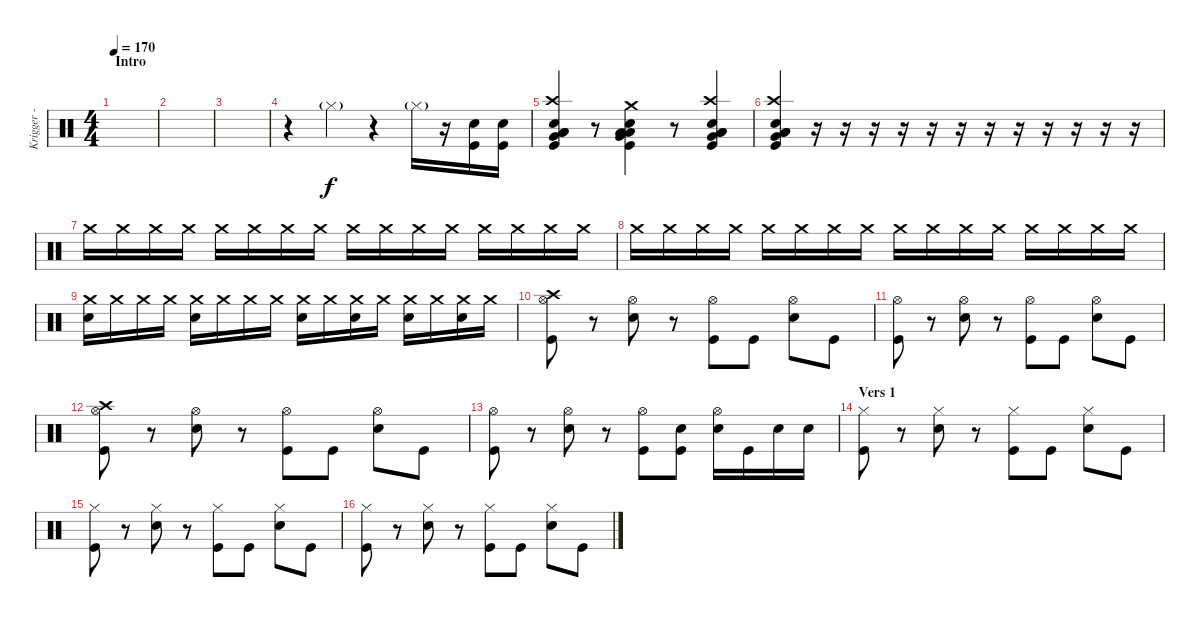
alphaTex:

\track ("Krigger - Drums" "Krigger - ") {instrument percussion}
\staff {score}
\articulation defaults
\ts (4 4)
\section ("" "Intro")
\tempo 170
\clef neutral
\ks c
|
|
|
r.4 "Hi-Hat (closed)"{g}.4 r.4 "Hi-Hat (closed)"{g}.16 r.16 ("Kick (hit)" "Snare (hit) 2").16{dy f} ("Kick (hit)" "Snare (hit) 2").16 |
("Kick (hit)" "Snare (hit) 2" "Crash high (hit)" "Low Floor Tom (hit)" "Low Tom (hit)" "Very Low Tom (hit)").4 r.8 ("Kick (hit)" "Snare (hit) 2" "Crash medium (hit)" "Low Floor Tom (hit)" "Low Tom (hit)" "Very Low Tom (hit)").4 r.8 ("Kick (hit)" "Snare (hit) 2" "Crash high (hit)" "Low Floor Tom (hit)" "Low Tom (hit)" "Very Low Tom (hit)").4 |
("Kick (hit)" "Snare (hit) 2" "Crash high (hit)" "Low Floor Tom (hit)" "Low Tom (hit)" "Very Low Tom (hit)").4 r.16 r.16 r.16 r.16 r.16 r.16 r.16 r.16 r.16 r.16 r.16 r.16{volume 0} |
"Crash medium (hit)".16{volume 13} "Crash medium (hit)".16 "Crash medium (hit)".16 "Crash medium (hit)".16 "Crash medium (hit)".16 "Crash medium (hit)".16 "Crash medium (hit)".16 "Crash medium (hit)".16 "Crash medium (hit)".16 "Crash medium (hit)".16 "Crash medium (hit)".16 "Crash medium (hit)".16 "Crash medium (hit)".16 "Crash medium (hit)".16 "Crash medium (hit)".16 "Crash medium (hit)".16 |
"Crash medium (hit)".16 "Crash medium (hit)".16 "Crash medium (hit)".16 "Crash medium (hit)".16 "Crash medium (hit)".16 "Crash medium (hit)".16 "Crash medium (hit)".16 "Crash medium (hit)".16 "Crash medium (hit)".16 "Crash medium (hit)".16 "Crash medium (hit)".16 "Crash medium (hit)".16 "Crash medium (hit)".16 "Crash medium (hit)".16 "Crash medium (hit)".16 "Crash medium (hit)".16 |
("Crash medium (hit)" "Snare (hit) 2").16 "Crash medium (hit)".16 "Crash medium (hit)".16 "Crash medium (hit)".16 ("Crash medium (hit)" "Snare (hit) 2").16 "Crash medium (hit)".16 "Crash medium (hit)".16 "Crash medium (hit)".16 ("Crash medium (hit)" "Snare (hit) 2").16 "Crash medium (hit)".16 ("Crash medium (hit)" "Snare (hit) 2").16 "Crash medium (hit)".16 ("Crash medium (hit)" "Snare (hit) 2").16 "Crash medium (hit)".16 ("Crash medium (hit)" "Snare (hit) 2").16 "Crash medium (hit)".16 |
("Hi-Hat (open)" "Crash high (hit)" "Kick (hit)").8 r.8 ("Hi-Hat (open)" "Snare (hit) 2").8 r.8 ("Hi-Hat (open)" "Kick (hit)").8 "Kick (hit)".8 ("Hi-Hat (open)" "Snare (hit) 2").8 "Kick (hit)".8 |
("Hi-Hat (open)" "Kick (hit)").8 r.8 ("Hi-Hat (open)" "Snare (hit) 2").8 r.8 ("Hi-Hat (open)" "Kick (hit)").8 "Kick (hit)".8 ("Hi-Hat (open)" "Snare (hit) 2").8 "Kick (hit)".8 |
("Hi-Hat (open)" "Crash high (hit)" "Kick (hit)").8 r.8 ("Hi-Hat (open)" "Snare (hit) 2").8 r.8 ("Hi-Hat (open)" "Kick (hit)").8 "Kick (hit)".8 ("Hi-Hat (open)" "Snare (hit) 2").8 "Kick (hit)".8 |
("Hi-Hat (open)" "Kick (hit)").8 r.8 ("Hi-Hat (open)" "Snare (hit) 2").8 r.8 ("Hi-Hat (open)" "Kick (hit)").8 ("Snare (hit) 2" "Kick (hit)").8 ("Hi-Hat (open)" "Snare (hit) 2").16 "Kick (hit)".16 "Snare (hit) 2".16 "Snare (hit) 2".16 |
\section ("" "Vers 1")
("Hi-Hat (closed)" "Kick (hit)").8 r.8 ("Hi-Hat (closed)" "Snare (hit) 2").8 r.8 ("Hi-Hat (closed)" "Kick (hit)").8 "Kick (hit)".8 ("Hi-Hat (closed)" "Snare (hit) 2").8 "Kick (hit)".8 |
("Hi-Hat (closed)" "Kick (hit)").8 r.8 ("Hi-Hat (closed)" "Snare (hit) 2").8 r.8 ("Hi-Hat (closed)" "Kick (hit)").8 "Kick (hit)".8 ("Hi-Hat (closed)" "Snare (hit) 2").8 "Kick (hit)".8 |
("Hi-Hat (closed)" "Kick (hit)").8 r.8 ("Hi-Hat (closed)" "Snare (hit) 2").8 r.8 ("Hi-Hat (closed)" "Kick (hit)").8 "Kick (hit)".8 ("Hi-Hat (closed)" "Snare (hit) 2").8 "Kick (hit)".8
